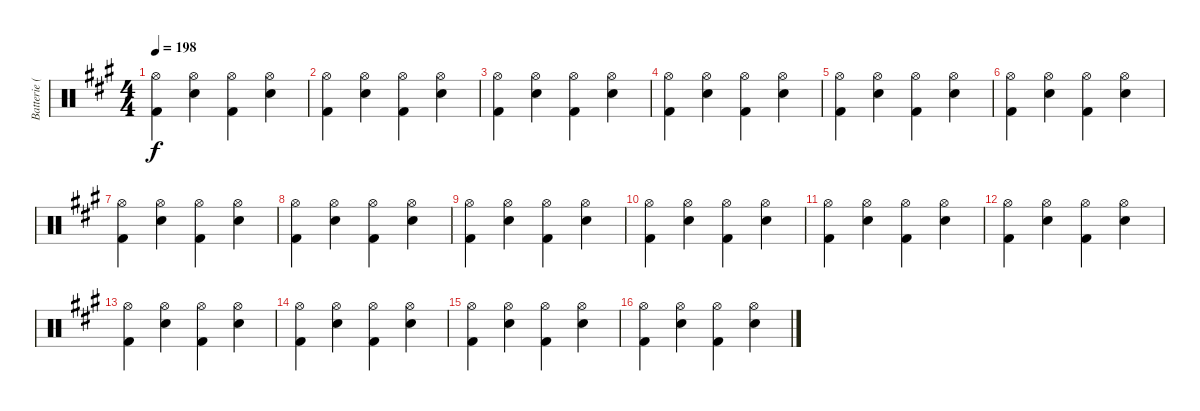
\track ("Batterie (Phil Roud)" "Batterie (") {instrument percussion}
\staff {score}
\articulation defaults
\ts (4 4)
\tempo 198
\clef neutral
\ks a
("Hi-Hat (open)" "Kick (hit) 2").4{dy f} ("Hi-Hat (open)" "Snare (hit) 2").4 ("Hi-Hat (open)" "Kick (hit) 2").4 ("Hi-Hat (open)" "Snare (hit) 2").4 |
("Hi-Hat (open)" "Kick (hit) 2").4 ("Hi-Hat (open)" "Snare (hit) 2").4 ("Hi-Hat (open)" "Kick (hit) 2").4 ("Hi-Hat (open)" "Snare (hit) 2").4 |
("Hi-Hat (open)" "Kick (hit) 2").4 ("Hi-Hat (open)" "Snare (hit) 2").4 ("Hi-Hat (open)" "Kick (hit) 2").4 ("Hi-Hat (open)" "Snare (hit) 2").4 |
("Hi-Hat (open)" "Kick (hit) 2").4 ("Hi-Hat (open)" "Snare (hit) 2").4 ("Hi-Hat (open)" "Kick (hit) 2").4 ("Hi-Hat (open)" "Snare (hit) 2").4 |
("Hi-Hat (open)" "Kick (hit) 2").4 ("Hi-Hat (open)" "Snare (hit) 2").4 ("Hi-Hat (open)" "Kick (hit) 2").4 ("Hi-Hat (open)" "Snare (hit) 2").4 |
("Hi-Hat (open)" "Kick (hit) 2").4 ("Hi-Hat (open)" "Snare (hit) 2").4 ("Hi-Hat (open)" "Kick (hit) 2").4 ("Hi-Hat (open)" "Snare (hit) 2").4 |
("Hi-Hat (open)" "Kick (hit) 2").4 ("Hi-Hat (open)" "Snare (hit) 2").4 ("Hi-Hat (open)" "Kick (hit) 2").4 ("Hi-Hat (open)" "Snare (hit) 2").4 |
("Hi-Hat (open)" "Kick (hit) 2").4 ("Hi-Hat (open)" "Snare (hit) 2").4 ("Hi-Hat (open)" "Kick (hit) 2").4 ("Hi-Hat (open)" "Snare (hit) 2").4 |
("Hi-Hat (open)" "Kick (hit) 2").4 ("Hi-Hat (open)" "Snare (hit) 2").4 ("Hi-Hat (open)" "Kick (hit) 2").4 ("Hi-Hat (open)" "Snare (hit) 2").4 |
("Hi-Hat (open)" "Kick (hit) 2").4 ("Hi-Hat (open)" "Snare (hit) 2").4 ("Hi-Hat (open)" "Kick (hit) 2").4 ("Hi-Hat (open)" "Snare (hit) 2").4 |
("Hi-Hat (open)" "Kick (hit) 2").4 ("Hi-Hat (open)" "Snare (hit) 2").4 ("Hi-Hat (open)" "Kick (hit) 2").4 ("Hi-Hat (open)" "Snare (hit) 2").4 |
("Hi-Hat (open)" "Kick (hit) 2").4 ("Hi-Hat (open)" "Snare (hit) 2").4 ("Hi-Hat (open)" "Kick (hit) 2").4 ("Hi-Hat (open)" "Snare (hit) 2").4 |
("Hi-Hat (open)" "Kick (hit) 2").4 ("Hi-Hat (open)" "Snare (hit) 2").4 ("Hi-Hat (open)" "Kick (hit) 2").4 ("Hi-Hat (open)" "Snare (hit) 2").4 |
("Hi-Hat (open)" "Kick (hit) 2").4 ("Hi-Hat (open)" "Snare (hit) 2").4 ("Hi-Hat (open)" "Kick (hit) 2").4 ("Hi-Hat (open)" "Snare (hit) 2").4 |
("Hi-Hat (open)" "Kick (hit) 2").4 ("Hi-Hat (open)" "Snare (hit) 2").4 ("Hi-Hat (open)" "Kick (hit) 2").4 ("Hi-Hat (open)" "Snare (hit) 2").4 |
("Hi-Hat (open)" "Kick (hit) 2").4 ("Hi-Hat (open)" "Snare (hit) 2").4 ("Hi-Hat (open)" "Kick (hit) 2").4 ("Hi-Hat (open)" "Snare (hit) 2").4
